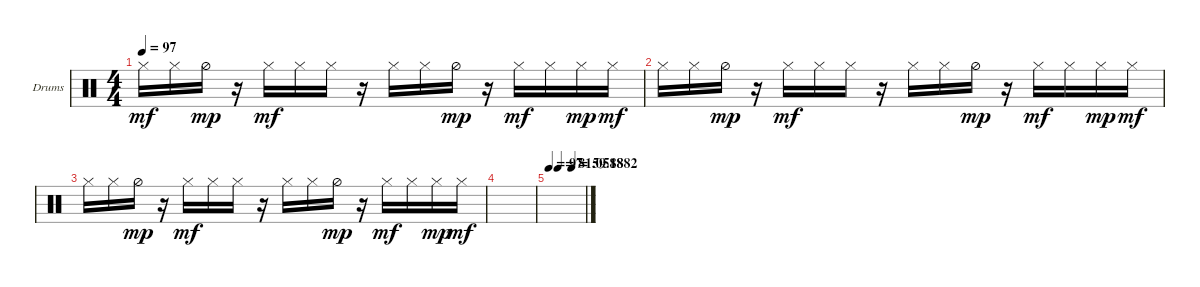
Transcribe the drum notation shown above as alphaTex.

\bracketExtendMode groupsimilarinstruments
\firstSystemTrackNameOrientation horizontal
\otherSystemsTrackNameOrientation horizontal
\track ("HH" "Drums") {instrument percussion}
\staff {score}
\articulation defaults
\ts (4 4)
\tempo 97
\clef neutral
\ks c "Hi-Hat (closed)".16{dy mf} "Hi-Hat (closed)".16 "Hi-Hat (half)".16{dy mp}
r.16 "Hi-Hat (closed)".16{dy mf} "Hi-Hat (closed)".16 "Hi-Hat (closed)".16 r.16 "Hi-Hat (closed)".16 "Hi-Hat (closed)".16 "Hi-Hat (half)".16{dy mp} r.16 "Hi-Hat (closed)".16{dy mf} "Hi-Hat (closed)".16 "Hi-Hat (closed)".16{dy mp} "Hi-Hat (closed)".16{dy mf} |
"Hi-Hat (closed)".16 "Hi-Hat (closed)".16 "Hi-Hat (half)".16{dy mp} r.16 "Hi-Hat (closed)".16{dy mf} "Hi-Hat (closed)".16 "Hi-Hat (closed)".16 r.16 "Hi-Hat (closed)".16 "Hi-Hat (closed)".16 "Hi-Hat (half)".16{dy mp} r.16 "Hi-Hat (closed)".16{dy mf} "Hi-Hat (closed)".16 "Hi-Hat (closed)".16{dy mp} "Hi-Hat (closed)".16{dy mf} |
"Hi-Hat (closed)".16 "Hi-Hat (closed)".16 "Hi-Hat (half)".16{dy mp} r.16 "Hi-Hat (closed)".16{dy mf} "Hi-Hat (closed)".16 "Hi-Hat (closed)".16 r.16 "Hi-Hat (closed)".16 "Hi-Hat (closed)".16 "Hi-Hat (half)".16{dy mp} r.16 "Hi-Hat (closed)".16{dy mf} "Hi-Hat (closed)".16 "Hi-Hat (closed)".16{dy mp} "Hi-Hat (closed)".16{dy mf} |
|
\tempo 97
\tempo (81.0588 0.25)
\tempo (59.1882 0.6375)
